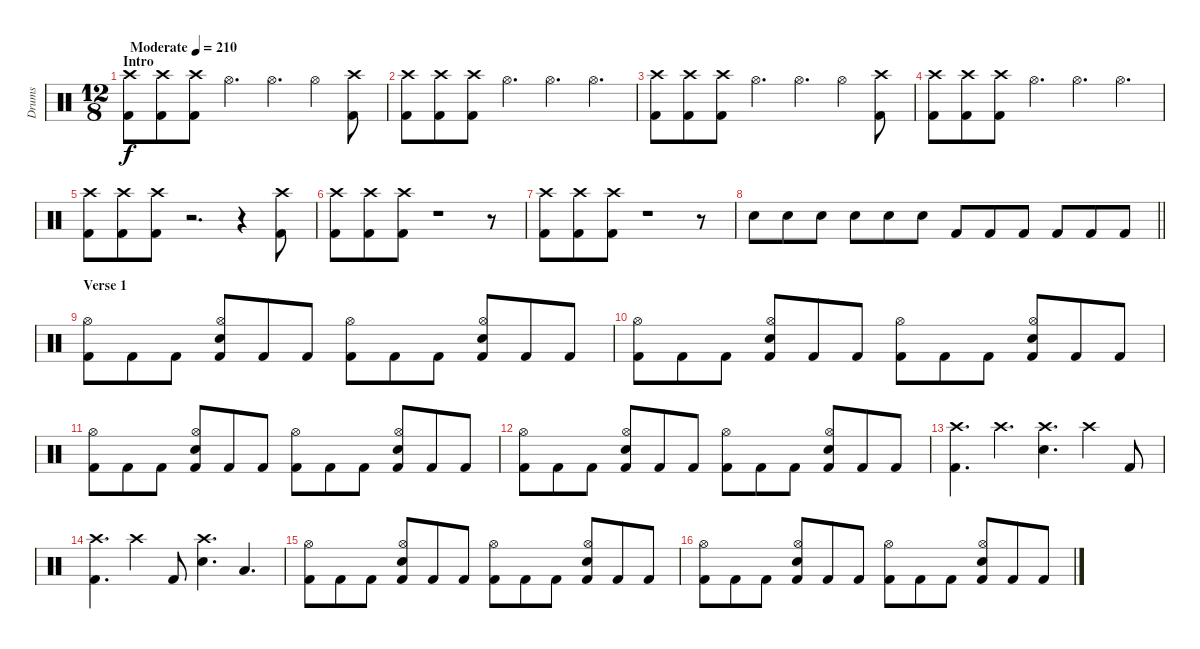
\track ("Drums" "Drums") {instrument percussion}
\staff {score}
\articulation defaults
\ts (12 8)
\section ("" "Intro")
\tempo (210 "Moderate")
\clef neutral
\ks c
("Crash high (hit)" "Kick (hit) 2").8{dy f} ("Crash high (hit)" "Kick (hit) 2").8 ("Crash high (hit)" "Kick (hit) 2").8 "Hi-Hat (open)".4{d} "Hi-Hat (open)".4{d} "Hi-Hat (open)".4 ("Crash high (hit)" "Kick (hit) 2").8 |
("Crash high (hit)" "Kick (hit) 2").8 ("Crash high (hit)" "Kick (hit) 2").8 ("Crash high (hit)" "Kick (hit) 2").8 "Hi-Hat (open)".4{d} "Hi-Hat (open)".4{d} "Hi-Hat (open)".4{d} |
("Crash high (hit)" "Kick (hit) 2").8 ("Crash high (hit)" "Kick (hit) 2").8 ("Crash high (hit)" "Kick (hit) 2").8 "Hi-Hat (open)".4{d} "Hi-Hat (open)".4{d} "Hi-Hat (open)".4 ("Crash high (hit)" "Kick (hit) 2").8 |
("Crash high (hit)" "Kick (hit) 2").8 ("Crash high (hit)" "Kick (hit) 2").8 ("Crash high (hit)" "Kick (hit) 2").8 "Hi-Hat (open)".4{d} "Hi-Hat (open)".4{d} "Hi-Hat (open)".4{d} |
("Crash high (hit)" "Kick (hit) 2").8 ("Crash high (hit)" "Kick (hit) 2").8 ("Crash high (hit)" "Kick (hit) 2").8 r.2{d} r.4 ("Crash high (hit)" "Kick (hit) 2").8 |
("Crash high (hit)" "Kick (hit) 2").8 ("Crash high (hit)" "Kick (hit) 2").8 ("Crash high (hit)" "Kick (hit) 2").8 r.1 r.8 |
("Crash high (hit)" "Kick (hit) 2").8 ("Crash high (hit)" "Kick (hit) 2").8 ("Crash high (hit)" "Kick (hit) 2").8 r.1 r.8 |
\barLineRight lightlight "Electric Snare (hit)".8 "Electric Snare (hit)".8 "Electric Snare (hit)".8 "Electric Snare (hit)".8 "Electric Snare (hit)".8 "Electric Snare (hit)".8 "Kick (hit) 2".8 "Kick (hit) 2".8 "Kick (hit) 2".8 "Kick (hit) 2".8 "Kick (hit) 2".8 "Kick (hit) 2".8
|
\section ("" "Verse 1")
("Hi-Hat (open)" "Kick (hit) 2").8 "Kick (hit) 2".8 "Kick (hit) 2".8 ("Hi-Hat (open)" "Electric Snare (hit)" "Kick (hit) 2").8 "Kick (hit) 2".8 "Kick (hit) 2".8 ("Hi-Hat (open)" "Kick (hit) 2").8 "Kick (hit) 2".8 "Kick (hit) 2".8 ("Hi-Hat (open)" "Electric Snare (hit)" "Kick (hit) 2").8 "Kick (hit) 2".8 "Kick (hit) 2".8 |
("Hi-Hat (open)" "Kick (hit) 2").8 "Kick (hit) 2".8 "Kick (hit) 2".8 ("Hi-Hat (open)" "Electric Snare (hit)" "Kick (hit) 2").8 "Kick (hit) 2".8 "Kick (hit) 2".8 ("Hi-Hat (open)" "Kick (hit) 2").8 "Kick (hit) 2".8 "Kick (hit) 2".8 ("Hi-Hat (open)" "Electric Snare (hit)" "Kick (hit) 2").8 "Kick (hit) 2".8 "Kick (hit) 2".8 |
("Hi-Hat (open)" "Kick (hit) 2").8 "Kick (hit) 2".8 "Kick (hit) 2".8 ("Hi-Hat (open)" "Electric Snare (hit)" "Kick (hit) 2").8 "Kick (hit) 2".8 "Kick (hit) 2".8 ("Hi-Hat (open)" "Kick (hit) 2").8 "Kick (hit) 2".8 "Kick (hit) 2".8 ("Hi-Hat (open)" "Electric Snare (hit)" "Kick (hit) 2").8 "Kick (hit) 2".8 "Kick (hit) 2".8 |
("Hi-Hat (open)" "Kick (hit) 2").8 "Kick (hit) 2".8 "Kick (hit) 2".8 ("Hi-Hat (open)" "Electric Snare (hit)" "Kick (hit) 2").8 "Kick (hit) 2".8 "Kick (hit) 2".8 ("Hi-Hat (open)" "Kick (hit) 2").8 "Kick (hit) 2".8 "Kick (hit) 2".8 ("Hi-Hat (open)" "Electric Snare (hit)" "Kick (hit) 2").8 "Kick (hit) 2".8 "Kick (hit) 2".8 |
("Crash high (hit)" "Kick (hit) 2").4{d} "Crash high (hit)".4{d} ("Crash high (hit)" "Electric Snare (hit)").4{d} "Crash high (hit)".4 "Kick (hit) 2".8 |
("Crash high (hit)" "Kick (hit) 2").4{d} "Crash high (hit)".4 "Kick (hit) 2".8 ("Crash high (hit)" "Electric Snare (hit)").4{d} "Low Tom (hit)".4{d} |
("Hi-Hat (open)" "Kick (hit) 2").8 "Kick (hit) 2".8 "Kick (hit) 2".8 ("Hi-Hat (open)" "Electric Snare (hit)" "Kick (hit) 2").8 "Kick (hit) 2".8 "Kick (hit) 2".8 ("Hi-Hat (open)" "Kick (hit) 2").8 "Kick (hit) 2".8 "Kick (hit) 2".8 ("Hi-Hat (open)" "Electric Snare (hit)" "Kick (hit) 2").8 "Kick (hit) 2".8 "Kick (hit) 2".8 |
("Hi-Hat (open)" "Kick (hit) 2").8 "Kick (hit) 2".8 "Kick (hit) 2".8 ("Hi-Hat (open)" "Electric Snare (hit)" "Kick (hit) 2").8 "Kick (hit) 2".8 "Kick (hit) 2".8 ("Hi-Hat (open)" "Kick (hit) 2").8 "Kick (hit) 2".8 "Kick (hit) 2".8 ("Hi-Hat (open)" "Electric Snare (hit)" "Kick (hit) 2").8 "Kick (hit) 2".8 "Kick (hit) 2".8
